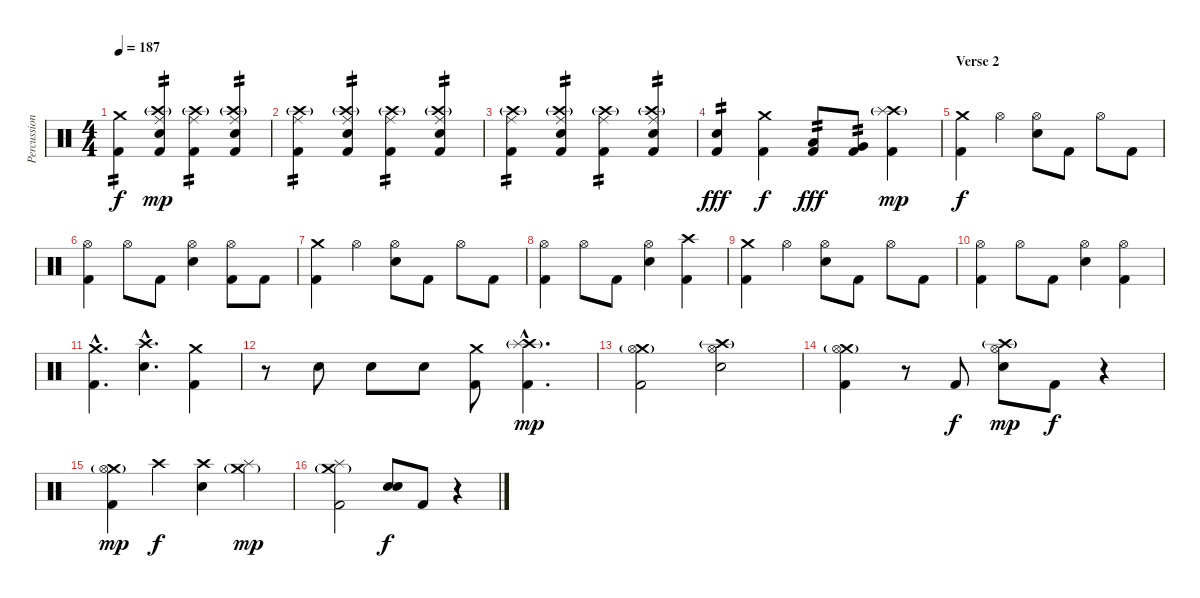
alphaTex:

\track ("Percussion" "Percussion") {instrument percussion}
\staff {score}
\articulation defaults
\ts (4 4)
\tempo 187
\clef neutral
\ks c
("Crash medium (hit)" "Kick (hit) 2").4{tp 2 dy f} ("Crash high (hit)"{g} "Ride (middle)" "Electric Snare (hit)" "Kick (hit) 2").4{tp 2 dy mp} ("Crash high (hit)"{g} "Ride (middle)" "Kick (hit) 2").4{tp 2} ("Crash high (hit)"{g} "Ride (middle)" "Electric Snare (hit)" "Kick (hit) 2").4{tp 2} |
("Crash high (hit)"{g} "Ride (middle)" "Kick (hit) 2").4{tp 2} ("Crash high (hit)"{g} "Ride (middle)" "Electric Snare (hit)" "Kick (hit) 2").4{tp 2} ("Crash high (hit)"{g} "Ride (middle)" "Kick (hit) 2").4{tp 2} ("Crash high (hit)"{g} "Ride (middle)" "Electric Snare (hit)" "Kick (hit) 2").4{tp 2} |
("Crash high (hit)"{g} "Ride (middle)" "Kick (hit) 2").4{tp 2} ("Crash high (hit)"{g} "Ride (middle)" "Electric Snare (hit)" "Kick (hit) 2").4{tp 2} ("Crash high (hit)"{g} "Ride (middle)" "Kick (hit) 2").4{tp 2} ("Crash high (hit)"{g} "Ride (middle)" "Electric Snare (hit)" "Kick (hit) 2").4{tp 2} |
("Electric Snare (hit)" "Kick (hit) 2").4{tp 2 dy fff} ("Crash medium (hit)" "Kick (hit) 2").4{dy f} ("Low Tom (hit)" "Kick (hit) 2").8{tp 2 dy fff} ("Very Low Tom (hit)" "Kick (hit) 2").8{tp 2} ("Crash high (hit)"{g} "Splash (hit)" "Kick (hit) 2").4{dy mp} |
\section ("" "Verse 2")
("Crash medium (hit)" "Kick (hit) 2").4{dy f} "Hi-Hat (open)".4 ("Hi-Hat (open)" "Electric Snare (hit)").8 "Kick (hit) 2".8 "Hi-Hat (open)".8 "Kick (hit) 2".8 |
("Hi-Hat (open)" "Kick (hit) 2").4 "Hi-Hat (open)".8 "Kick (hit) 2".8 ("Hi-Hat (open)" "Electric Snare (hit)").4 ("Hi-Hat (open)" "Kick (hit) 2").8 "Kick (hit) 2".8 |
("Crash medium (hit)" "Kick (hit) 2").4 "Hi-Hat (open)".4 ("Hi-Hat (open)" "Electric Snare (hit)").8 "Kick (hit) 2".8 "Hi-Hat (open)".8 "Kick (hit) 2".8 |
("Hi-Hat (open)" "Kick (hit) 2").4 "Hi-Hat (open)".8 "Kick (hit) 2".8 ("Hi-Hat (open)" "Electric Snare (hit)").4 ("Crash high (hit)" "Kick (hit) 2").4 |
("Crash medium (hit)" "Kick (hit) 2").4 "Hi-Hat (open)".4 ("Hi-Hat (open)" "Electric Snare (hit)").8 "Kick (hit) 2".8 "Hi-Hat (open)".8 "Kick (hit) 2".8 |
("Hi-Hat (open)" "Kick (hit) 2").4 "Hi-Hat (open)".8 "Kick (hit) 2".8 ("Hi-Hat (open)" "Electric Snare (hit)").4 ("Hi-Hat (open)" "Kick (hit) 2").4 |
("Crash medium (hit)"{hac} "Kick (hit) 2"{hac}).4{d} ("Crash high (hit)"{hac} "Electric Snare (hit)"{hac}).4{d} ("Crash medium (hit)" "Kick (hit) 2").4 |
r.8 "Electric Snare (hit)".8 "Electric Snare (hit)".8 "Electric Snare (hit)".8 ("Crash medium (hit)" "Kick (hit) 2").8 ("Crash high (hit)"{g hac} "Splash (hit)"{hac} "Kick (hit) 2"{hac}).4{d dy mp} |
("Crash medium (hit)"{g} "Hi-Hat (open)" "Kick (hit) 2").2 ("Crash high (hit)"{g} "Hi-Hat (open)" "Electric Snare (hit)").2 |
("Crash medium (hit)"{g} "Hi-Hat (open)" "Kick (hit) 2").4 r.8 "Kick (hit) 2".8{dy f} ("Crash high (hit)"{g} "Hi-Hat (open)" "Electric Snare (hit)").8{dy mp} "Kick (hit) 2".8{dy f} r.4 |
("Crash medium (hit)"{g} "Hi-Hat (open)" "Kick (hit) 2").4{dy mp} "Crash high (hit)".4{dy f} ("Crash high (hit)" "Electric Snare (hit)").4 ("Crash medium (hit)"{g} "Splash (hit)").4{dy mp} |
("Crash medium (hit)"{g} "Splash (hit)" "Kick (hit) 2").2 ("Electric Snare (hit)" "Electric Snare (hit)").8{bd 480 dy f} "Kick (hit) 2".8 r.4
